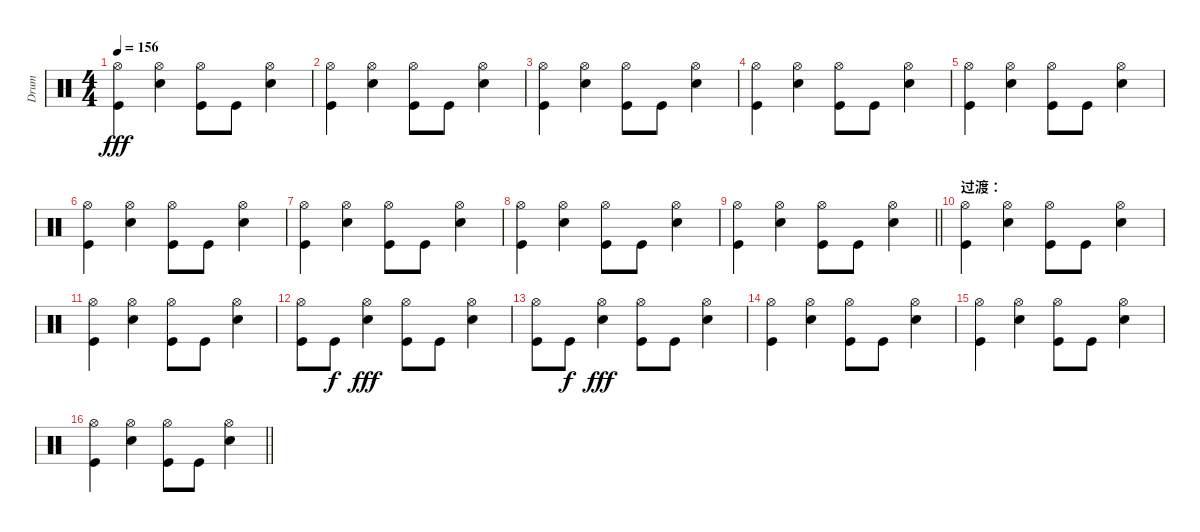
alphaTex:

\track ("Drum" "Drum") {instrument percussion}
\staff {score}
\articulation defaults
\ts (4 4)
\tempo 156
\clef neutral
\ks c
("Hi-Hat (open)" "Kick (hit)").4{dy fff} ("Hi-Hat (open)" "Metronome (bell)").4 ("Kick (hit)" "Hi-Hat (open)").8 "Kick (hit)".8 ("Metronome (bell)" "Hi-Hat (open)").4 |
("Kick (hit)" "Hi-Hat (open)").4 ("Metronome (bell)" "Hi-Hat (open)").4 ("Kick (hit)" "Hi-Hat (open)").8 "Kick (hit)".8 ("Metronome (bell)" "Hi-Hat (open)").4 |
("Hi-Hat (open)" "Kick (hit)").4 ("Metronome (bell)" "Hi-Hat (open)").4 ("Hi-Hat (open)" "Kick (hit)").8 "Kick (hit)".8 ("Metronome (bell)" "Hi-Hat (open)").4 |
("Hi-Hat (open)" "Kick (hit)").4 ("Metronome (bell)" "Hi-Hat (open)").4 ("Hi-Hat (open)" "Kick (hit)").8 "Kick (hit)".8 ("Hi-Hat (open)" "Metronome (bell)").4 |
("Hi-Hat (open)" "Kick (hit)").4 ("Metronome (bell)" "Hi-Hat (open)").4 ("Hi-Hat (open)" "Kick (hit)").8 "Kick (hit)".8 ("Hi-Hat (open)" "Metronome (bell)").4 |
("Hi-Hat (open)" "Kick (hit)").4 ("Metronome (bell)" "Hi-Hat (open)").4 ("Hi-Hat (open)" "Kick (hit)").8 "Kick (hit)".8 ("Metronome (bell)" "Hi-Hat (open)").4 |
("Hi-Hat (open)" "Kick (hit)").4 ("Hi-Hat (open)" "Metronome (bell)").4 ("Hi-Hat (open)" "Kick (hit)").8 "Kick (hit)".8 ("Hi-Hat (open)" "Metronome (bell)").4 |
("Hi-Hat (open)" "Kick (hit)").4 ("Hi-Hat (open)" "Metronome (bell)").4 ("Kick (hit)" "Hi-Hat (open)").8 "Kick (hit)".8 ("Metronome (bell)" "Hi-Hat (open)").4 |
\barLineRight lightlight
("Kick (hit)" "Hi-Hat (open)").4 ("Metronome (bell)" "Hi-Hat (open)").4 ("Hi-Hat (open)" "Kick (hit)").8 "Kick (hit)".8 ("Hi-Hat (open)" "Metronome (bell)").4 |
\section ("" "过渡：")
("Hi-Hat (open)" "Kick (hit)").4 ("Metronome (bell)" "Hi-Hat (open)").4 ("Hi-Hat (open)" "Kick (hit)").8 "Kick (hit)".8 ("Metronome (bell)" "Hi-Hat (open)").4 |
("Hi-Hat (open)" "Kick (hit)").4 ("Metronome (bell)" "Hi-Hat (open)").4 ("Hi-Hat (open)" "Kick (hit)").8 "Kick (hit)".8 ("Hi-Hat (open)" "Metronome (bell)").4 |
("Kick (hit)" "Hi-Hat (open)").8 "Kick (hit)".8{dy f} ("Hi-Hat (open)" "Metronome (bell)").4{dy fff} ("Kick (hit)" "Hi-Hat (open)").8 "Kick (hit)".8 ("Metronome (bell)" "Hi-Hat (open)").4 |
("Kick (hit)" "Hi-Hat (open)").8 "Kick (hit)".8{dy f} ("Hi-Hat (open)" "Metronome (bell)").4{dy fff} ("Kick (hit)" "Hi-Hat (open)").8 "Kick (hit)".8 ("Metronome (bell)" "Hi-Hat (open)").4 |
("Hi-Hat (open)" "Kick (hit)").4 ("Hi-Hat (open)" "Metronome (bell)").4 ("Kick (hit)" "Hi-Hat (open)").8 "Kick (hit)".8 ("Metronome (bell)" "Hi-Hat (open)").4 |
("Kick (hit)" "Hi-Hat (open)").4 ("Metronome (bell)" "Hi-Hat (open)").4 ("Hi-Hat (open)" "Kick (hit)").8 "Kick (hit)".8 ("Hi-Hat (open)" "Metronome (bell)").4 |
\barLineRight lightlight
("Hi-Hat (open)" "Kick (hit)").4 ("Hi-Hat (open)" "Metronome (bell)").4 ("Kick (hit)" "Hi-Hat (open)").8 "Kick (hit)".8 ("Metronome (bell)" "Hi-Hat (open)").4
